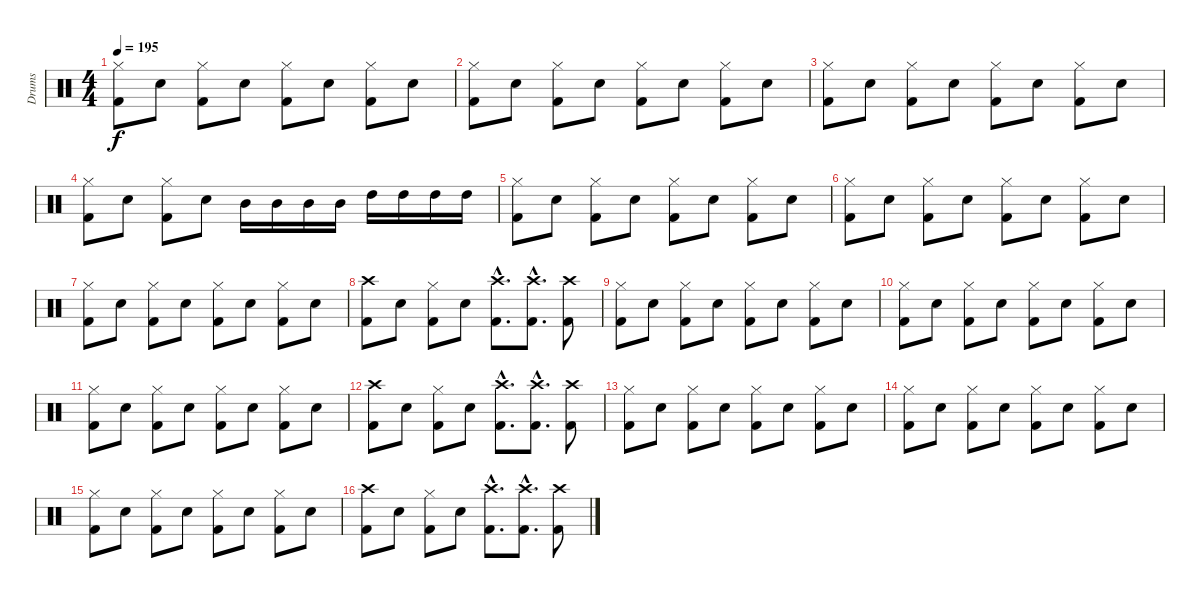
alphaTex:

\track ("Drums" "Drums") {instrument percussion}
\staff {score}
\articulation defaults
\ts (4 4)
\tempo 195
\clef neutral
\ks c
("Kick (hit) 2" "Hi-Hat (closed)").8{dy f} "Snare (hit) 2".8 ("Kick (hit) 2" "Hi-Hat (closed)").8 "Snare (hit) 2".8 ("Kick (hit) 2" "Hi-Hat (closed)").8 "Snare (hit) 2".8 ("Kick (hit) 2" "Hi-Hat (closed)").8 "Snare (hit) 2".8 |
("Kick (hit) 2" "Hi-Hat (closed)").8 "Snare (hit) 2".8 ("Kick (hit) 2" "Hi-Hat (closed)").8 "Snare (hit) 2".8 ("Kick (hit) 2" "Hi-Hat (closed)").8 "Snare (hit) 2".8 ("Kick (hit) 2" "Hi-Hat (closed)").8 "Snare (hit) 2".8 |
("Kick (hit) 2" "Hi-Hat (closed)").8 "Snare (hit) 2".8 ("Kick (hit) 2" "Hi-Hat (closed)").8 "Snare (hit) 2".8 ("Kick (hit) 2" "Hi-Hat (closed)").8 "Snare (hit) 2".8 ("Kick (hit) 2" "Hi-Hat (closed)").8 "Snare (hit) 2".8 |
("Kick (hit) 2" "Hi-Hat (closed)").8 "Snare (hit) 2".8 ("Kick (hit) 2" "Hi-Hat (closed)").8 "Snare (hit) 2".8 "Mid Tom (hit)".16 "Mid Tom (hit)".16 "Mid Tom (hit)".16 "Mid Tom (hit)".16 "High Tom (hit)".16 "High Tom (hit)".16 "High Tom (hit)".16 "High Tom (hit)".16 |
("Kick (hit) 2" "Hi-Hat (closed)").8 "Snare (hit) 2".8 ("Kick (hit) 2" "Hi-Hat (closed)").8 "Snare (hit) 2".8 ("Kick (hit) 2" "Hi-Hat (closed)").8 "Snare (hit) 2".8 ("Kick (hit) 2" "Hi-Hat (closed)").8 "Snare (hit) 2".8 |
("Kick (hit) 2" "Hi-Hat (closed)").8 "Snare (hit) 2".8 ("Kick (hit) 2" "Hi-Hat (closed)").8 "Snare (hit) 2".8 ("Kick (hit) 2" "Hi-Hat (closed)").8 "Snare (hit) 2".8 ("Kick (hit) 2" "Hi-Hat (closed)").8 "Snare (hit) 2".8 |
("Kick (hit) 2" "Hi-Hat (closed)").8 "Snare (hit) 2".8 ("Kick (hit) 2" "Hi-Hat (closed)").8 "Snare (hit) 2".8 ("Kick (hit) 2" "Hi-Hat (closed)").8 "Snare (hit) 2".8 ("Kick (hit) 2" "Hi-Hat (closed)").8 "Snare (hit) 2".8 |
("Kick (hit) 2" "Crash high (hit)").8 "Snare (hit) 2".8 ("Kick (hit) 2" "Hi-Hat (closed)").8 "Snare (hit) 2".8 ("Kick (hit) 2"{hac} "Crash high (hit)"{hac}).8{d} ("Kick (hit) 2"{hac} "Crash high (hit)"{hac}).8{d} ("Kick (hit) 2" "Crash high (hit)").8 |
("Kick (hit) 2" "Hi-Hat (closed)").8 "Snare (hit) 2".8 ("Kick (hit) 2" "Hi-Hat (closed)").8 "Snare (hit) 2".8 ("Kick (hit) 2" "Hi-Hat (closed)").8 "Snare (hit) 2".8 ("Kick (hit) 2" "Hi-Hat (closed)").8 "Snare (hit) 2".8 |
("Kick (hit) 2" "Hi-Hat (closed)").8 "Snare (hit) 2".8 ("Kick (hit) 2" "Hi-Hat (closed)").8 "Snare (hit) 2".8 ("Kick (hit) 2" "Hi-Hat (closed)").8 "Snare (hit) 2".8 ("Kick (hit) 2" "Hi-Hat (closed)").8 "Snare (hit) 2".8 |
("Kick (hit) 2" "Hi-Hat (closed)").8 "Snare (hit) 2".8 ("Kick (hit) 2" "Hi-Hat (closed)").8 "Snare (hit) 2".8 ("Kick (hit) 2" "Hi-Hat (closed)").8 "Snare (hit) 2".8 ("Kick (hit) 2" "Hi-Hat (closed)").8 "Snare (hit) 2".8 |
("Kick (hit) 2" "Crash high (hit)").8 "Snare (hit) 2".8 ("Kick (hit) 2" "Hi-Hat (closed)").8 "Snare (hit) 2".8 ("Kick (hit) 2"{hac} "Crash high (hit)"{hac}).8{d} ("Kick (hit) 2"{hac} "Crash high (hit)"{hac}).8{d} ("Kick (hit) 2" "Crash high (hit)").8 |
("Kick (hit) 2" "Hi-Hat (closed)").8 "Snare (hit) 2".8 ("Kick (hit) 2" "Hi-Hat (closed)").8 "Snare (hit) 2".8 ("Kick (hit) 2" "Hi-Hat (closed)").8 "Snare (hit) 2".8 ("Kick (hit) 2" "Hi-Hat (closed)").8 "Snare (hit) 2".8 |
("Kick (hit) 2" "Hi-Hat (closed)").8 "Snare (hit) 2".8 ("Kick (hit) 2" "Hi-Hat (closed)").8 "Snare (hit) 2".8 ("Kick (hit) 2" "Hi-Hat (closed)").8 "Snare (hit) 2".8 ("Kick (hit) 2" "Hi-Hat (closed)").8 "Snare (hit) 2".8 |
("Kick (hit) 2" "Hi-Hat (closed)").8 "Snare (hit) 2".8 ("Kick (hit) 2" "Hi-Hat (closed)").8 "Snare (hit) 2".8 ("Kick (hit) 2" "Hi-Hat (closed)").8 "Snare (hit) 2".8 ("Kick (hit) 2" "Hi-Hat (closed)").8 "Snare (hit) 2".8 |
("Kick (hit) 2" "Crash high (hit)").8 "Snare (hit) 2".8 ("Kick (hit) 2" "Hi-Hat (closed)").8 "Snare (hit) 2".8 ("Kick (hit) 2"{hac} "Crash high (hit)"{hac}).8{d} ("Kick (hit) 2"{hac} "Crash high (hit)"{hac}).8{d} ("Kick (hit) 2" "Crash high (hit)").8
